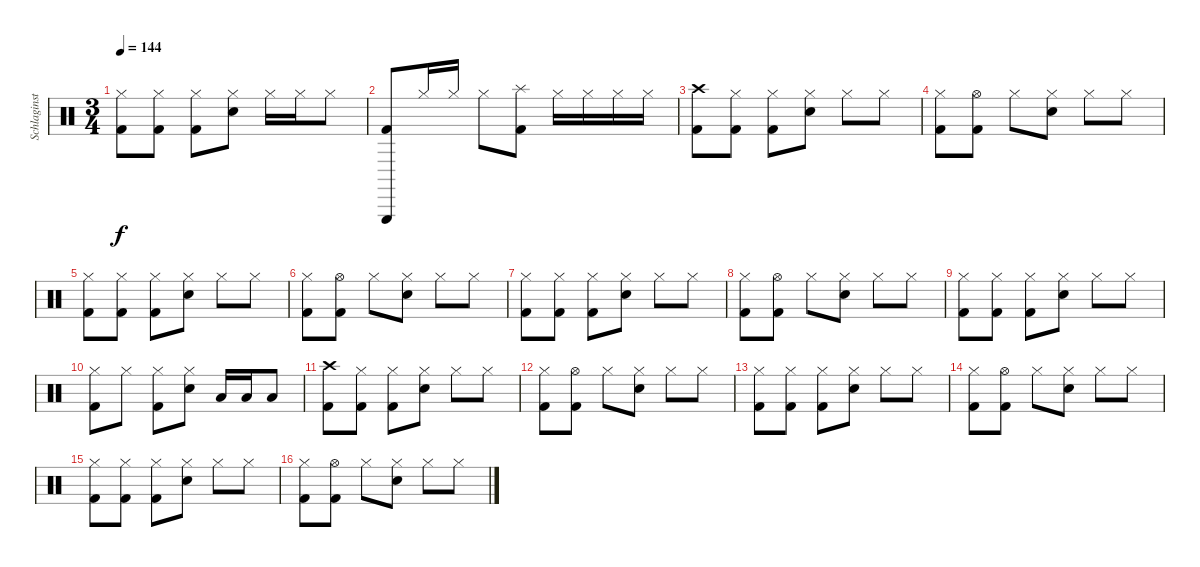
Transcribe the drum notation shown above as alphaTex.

\track ("Schlaginstrumente - Auswahl" "Schlaginst") {instrument percussion}
\staff {score}
\articulation defaults
\ts (3 4)
\tempo 144
\clef neutral
\ks c
("Hi-Hat (closed)" "Kick (hit) 2").8{dy f} ("Hi-Hat (closed)" "Kick (hit) 2").8 ("Hi-Hat (closed)" "Kick (hit) 2").8 ("Hi-Hat (closed)" "Snare (hit) 2").8 "Hi-Hat (closed)".16 "Hi-Hat (closed)".16 "Hi-Hat (closed)".8 |
("Triangle (hit)" "Kick (hit) 2").8 "Hi-Hat (closed)".16 "Hi-Hat (closed)".16 "Hi-Hat (closed)".8 ("Splash (hit)" "Kick (hit) 2").8 "Hi-Hat (closed)".16 "Hi-Hat (closed)".16 "Hi-Hat (closed)".16 "Hi-Hat (closed)".16 |
("Crash high (hit)" "Kick (hit) 2").8 ("Hi-Hat (closed)" "Kick (hit) 2").8 ("Hi-Hat (closed)" "Kick (hit) 2").8 ("Hi-Hat (closed)" "Snare (hit) 2").8 "Hi-Hat (closed)".8 "Hi-Hat (closed)".8 |
("Hi-Hat (closed)" "Kick (hit) 2").8 ("Hi-Hat (open)" "Kick (hit) 2").8 "Hi-Hat (closed)".8 ("Hi-Hat (closed)" "Snare (hit) 2").8 "Hi-Hat (closed)".8 "Hi-Hat (closed)".8 |
("Hi-Hat (closed)" "Kick (hit) 2").8 ("Hi-Hat (closed)" "Kick (hit) 2").8 ("Hi-Hat (closed)" "Kick (hit) 2").8 ("Hi-Hat (closed)" "Snare (hit) 2").8 "Hi-Hat (closed)".8 "Hi-Hat (closed)".8 |
("Hi-Hat (closed)" "Kick (hit) 2").8 ("Hi-Hat (open)" "Kick (hit) 2").8 "Hi-Hat (closed)".8 ("Hi-Hat (closed)" "Snare (hit) 2").8 "Hi-Hat (closed)".8 "Hi-Hat (closed)".8 |
("Hi-Hat (closed)" "Kick (hit) 2").8 ("Hi-Hat (closed)" "Kick (hit) 2").8 ("Hi-Hat (closed)" "Kick (hit) 2").8 ("Hi-Hat (closed)" "Snare (hit) 2").8 "Hi-Hat (closed)".8 "Hi-Hat (closed)".8 |
("Hi-Hat (closed)" "Kick (hit) 2").8 ("Hi-Hat (open)" "Kick (hit) 2").8 "Hi-Hat (closed)".8 ("Hi-Hat (closed)" "Snare (hit) 2").8 "Hi-Hat (closed)".8 "Hi-Hat (closed)".8 |
("Hi-Hat (closed)" "Kick (hit) 2").8 ("Hi-Hat (closed)" "Kick (hit) 2").8 ("Hi-Hat (closed)" "Kick (hit) 2").8 ("Hi-Hat (closed)" "Snare (hit) 2").8 "Hi-Hat (closed)".8 "Hi-Hat (closed)".8 |
("Hi-Hat (closed)" "Kick (hit) 2").8 "Hi-Hat (closed)".8 ("Hi-Hat (closed)" "Kick (hit) 2").8 ("Hi-Hat (closed)" "Snare (hit) 2").8 "Low Tom (hit)".16 "Low Tom (hit)".16 "Low Tom (hit)".8 |
("Crash high (hit)" "Kick (hit) 2").8 ("Hi-Hat (closed)" "Kick (hit) 2").8 ("Hi-Hat (closed)" "Kick (hit) 2").8 ("Hi-Hat (closed)" "Snare (hit) 2").8 "Hi-Hat (closed)".8 "Hi-Hat (closed)".8 |
("Hi-Hat (closed)" "Kick (hit) 2").8 ("Hi-Hat (open)" "Kick (hit) 2").8 "Hi-Hat (closed)".8 ("Hi-Hat (closed)" "Snare (hit) 2").8 "Hi-Hat (closed)".8 "Hi-Hat (closed)".8 |
("Hi-Hat (closed)" "Kick (hit) 2").8 ("Hi-Hat (closed)" "Kick (hit) 2").8 ("Hi-Hat (closed)" "Kick (hit) 2").8 ("Hi-Hat (closed)" "Snare (hit) 2").8 "Hi-Hat (closed)".8 "Hi-Hat (closed)".8 |
("Hi-Hat (closed)" "Kick (hit) 2").8 ("Hi-Hat (open)" "Kick (hit) 2").8 "Hi-Hat (closed)".8 ("Hi-Hat (closed)" "Snare (hit) 2").8 "Hi-Hat (closed)".8 "Hi-Hat (closed)".8 |
("Hi-Hat (closed)" "Kick (hit) 2").8 ("Hi-Hat (closed)" "Kick (hit) 2").8 ("Hi-Hat (closed)" "Kick (hit) 2").8 ("Hi-Hat (closed)" "Snare (hit) 2").8 "Hi-Hat (closed)".8 "Hi-Hat (closed)".8 |
("Hi-Hat (closed)" "Kick (hit) 2").8 ("Hi-Hat (open)" "Kick (hit) 2").8 "Hi-Hat (closed)".8 ("Hi-Hat (closed)" "Snare (hit) 2").8 "Hi-Hat (closed)".8 "Hi-Hat (closed)".8
